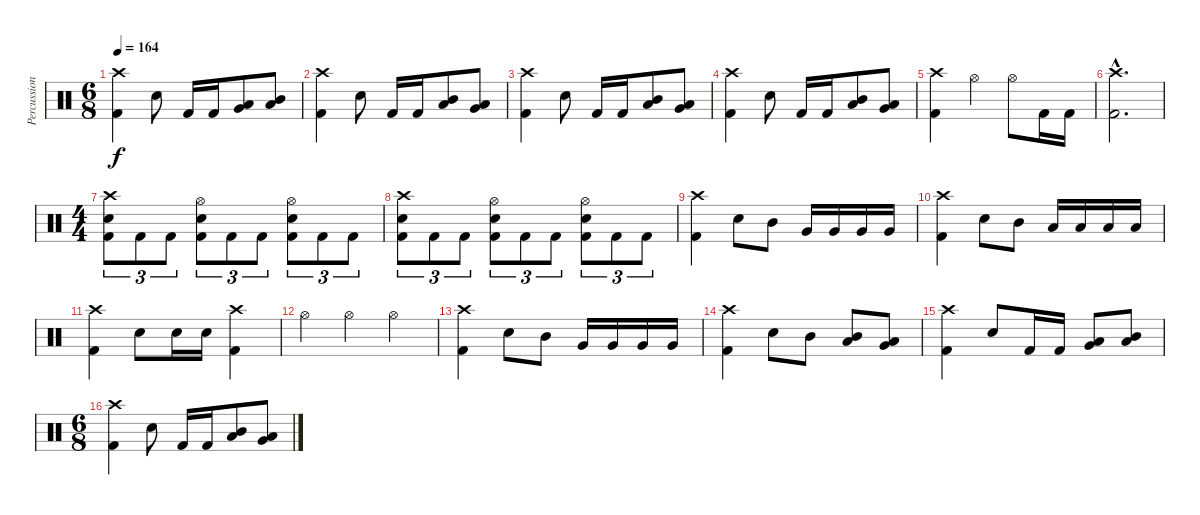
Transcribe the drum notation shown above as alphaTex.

\track ("Percussion" "Percussion") {instrument percussion}
\staff {score}
\articulation defaults
\ts (6 8)
\tempo 164
\clef neutral
\ks c
("Crash high (hit)" "Kick (hit) 2").4{dy f} "Snare (hit) 2".8 "Kick (hit) 2".16 "Kick (hit) 2".16 ("Low Tom (hit)" "Very Low Tom (hit)").8 ("Mid Tom (hit)" "Low Tom (hit)").8 |
("Crash high (hit)" "Kick (hit) 2").4 "Snare (hit) 2".8 "Kick (hit) 2".16 "Kick (hit) 2".16 ("Mid Tom (hit)" "Low Tom (hit)").8 ("Low Tom (hit)" "Very Low Tom (hit)").8 |
("Crash high (hit)" "Kick (hit) 2").4 "Snare (hit) 2".8 "Kick (hit) 2".16 "Kick (hit) 2".16 ("Mid Tom (hit)" "Low Tom (hit)").8 ("Low Tom (hit)" "Very Low Tom (hit)").8 |
("Crash high (hit)" "Kick (hit) 2").4 "Snare (hit) 2".8 "Kick (hit) 2".16 "Kick (hit) 2".16 ("Mid Tom (hit)" "Low Tom (hit)").8 ("Low Tom (hit)" "Very Low Tom (hit)").8 |
("Crash high (hit)" "Kick (hit) 2").4 "Hi-Hat (open)".4 "Hi-Hat (open)".8 "Kick (hit) 2".16 "Kick (hit) 2".16 |
("Crash high (hit)"{hac} "Kick (hit) 2"{hac}).2{d} |
\ts (4 4)
("Crash high (hit)" "Snare (hit) 2" "Kick (hit) 2").8{tu (3 2)} "Kick (hit) 2".8{tu (3 2)} "Kick (hit) 2".8{tu (3 2)} ("Hi-Hat (open)" "Snare (hit) 2" "Kick (hit) 2").8{tu (3 2)} "Kick (hit) 2".8{tu (3 2)} "Kick (hit) 2".8{tu (3 2)} ("Hi-Hat (open)" "Snare (hit) 2" "Kick (hit) 2").8{tu (3 2)} "Kick (hit) 2".8{tu (3 2)} "Kick (hit) 2".8{tu (3 2)} |
("Crash high (hit)" "Snare (hit) 2" "Kick (hit) 2").8{tu (3 2)} "Kick (hit) 2".8{tu (3 2)} "Kick (hit) 2".8{tu (3 2)} ("Hi-Hat (open)" "Snare (hit) 2" "Kick (hit) 2").8{tu (3 2)} "Kick (hit) 2".8{tu (3 2)} "Kick (hit) 2".8{tu (3 2)} ("Hi-Hat (open)" "Snare (hit) 2" "Kick (hit) 2").8{tu (3 2)} "Kick (hit) 2".8{tu (3 2)} "Kick (hit) 2".8{tu (3 2)} |
("Crash high (hit)" "Kick (hit) 2").4 "Snare (hit) 2".8 "Mid Tom (hit)".8 "Very Low Tom (hit)".16 "Very Low Tom (hit)".16 "Very Low Tom (hit)".16 "Very Low Tom (hit)".16 |
("Crash high (hit)" "Kick (hit) 2").4 "Snare (hit) 2".8 "Mid Tom (hit)".8 "Low Tom (hit)".16 "Low Tom (hit)".16 "Low Tom (hit)".16 "Low Tom (hit)".16 |
("Crash high (hit)" "Kick (hit) 2").4 "Snare (hit) 2".8 "Snare (hit) 2".16 "Snare (hit) 2".16 ("Crash high (hit)" "Kick (hit) 2").4 |
"Hi-Hat (open)".4 "Hi-Hat (open)".4 "Hi-Hat (open)".4 |
("Crash high (hit)" "Kick (hit) 2").4 "Snare (hit) 2".8 "Mid Tom (hit)".8 "Very Low Tom (hit)".16 "Very Low Tom (hit)".16 "Very Low Tom (hit)".16 "Very Low Tom (hit)".16 |
("Crash high (hit)" "Kick (hit) 2").4 "Snare (hit) 2".8 "Mid Tom (hit)".8 ("Mid Tom (hit)" "Low Tom (hit)").8 ("Low Tom (hit)" "Very Low Tom (hit)").8 |
("Crash high (hit)" "Kick (hit) 2").4 "Snare (hit) 2".8 "Kick (hit) 2".16 "Kick (hit) 2".16 ("Low Tom (hit)" "Very Low Tom (hit)").8 ("Mid Tom (hit)" "Low Tom (hit)").8 |
\ts (6 8)
("Crash high (hit)" "Kick (hit) 2").4 "Snare (hit) 2".8 "Kick (hit) 2".16 "Kick (hit) 2".16 ("Mid Tom (hit)" "Low Tom (hit)").8 ("Low Tom (hit)" "Very Low Tom (hit)").8
